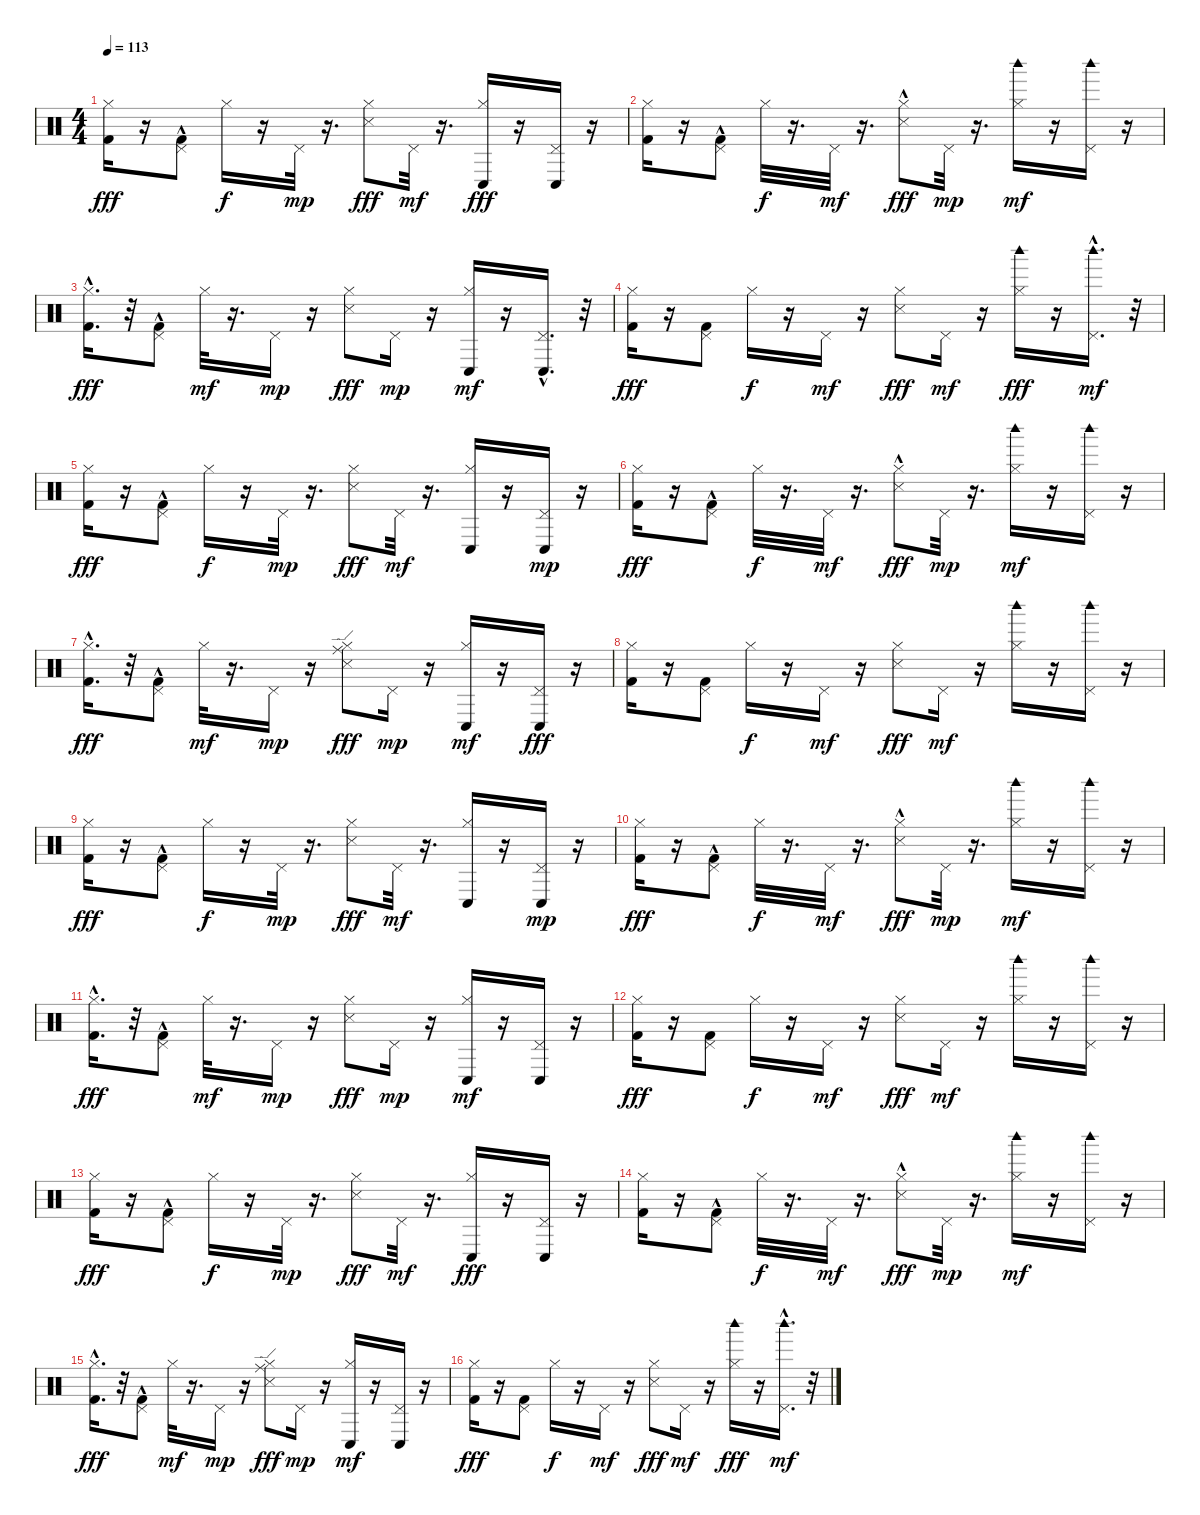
\track "" {instrument percussion}
\staff {score}
\articulation defaults
\ts (4 4)
\tempo 113
\clef neutral
\ks c
("Hi-Hat (closed)" "Kick (hit) 2").16{dy fff} r.16 ("Pedal Hi-Hat (hit)" "Kick (hit) 2"{hac}).8 "Hi-Hat (closed)".16{dy f} r.16 "Pedal Hi-Hat (hit)".32{dy mp} r.16{d} ("Hi-Hat (closed)" "Snare (side stick) 3").8{dy fff} "Pedal Hi-Hat (hit)".32{dy mf} r.16{d} ("Hi-Hat (closed)" "Conga low (hit)").16{dy fff} r.16 ("Pedal Hi-Hat (hit)" "Conga low (hit)").16 r.16 |
("Hi-Hat (closed)" "Kick (hit) 2").16 r.16 ("Pedal Hi-Hat (hit)" "Kick (hit) 2"{hac}).8 "Hi-Hat (closed)".32{dy f} r.16{d} "Pedal Hi-Hat (hit)".32{dy mf} r.16{d} ("Hi-Hat (closed)" "Snare (side stick) 3"{hac}).8{dy fff} "Pedal Hi-Hat (hit)".32{dy mp} r.16{d} ("Woodblock high (hit)" "Hi-Hat (closed)").16{dy mf} r.16 ("Woodblock high (hit)" "Pedal Hi-Hat (hit)").16 r.16 |
("Hi-Hat (closed)" "Kick (hit) 2"{hac}).16{d dy fff} r.32 ("Pedal Hi-Hat (hit)" "Kick (hit) 2"{hac}).8 "Hi-Hat (closed)".32{dy mf} r.16{d} "Pedal Hi-Hat (hit)".16{dy mp} r.16 ("Hi-Hat (closed)" "Snare (side stick) 3").8{dy fff} "Pedal Hi-Hat (hit)".16{dy mp} r.16 ("Conga low (hit)" "Hi-Hat (closed)").16{dy mf} r.16 ("Conga low (hit)"{hac} "Pedal Hi-Hat (hit)").16{d} r.32 |
("Hi-Hat (closed)" "Kick (hit) 2").16{dy fff} r.16 ("Pedal Hi-Hat (hit)" "Kick (hit) 2").8 "Hi-Hat (closed)".16{dy f} r.16 "Pedal Hi-Hat (hit)".16{dy mf} r.16 ("Hi-Hat (closed)" "Snare (side stick) 3").8{dy fff} "Pedal Hi-Hat (hit)".16{dy mf} r.16 ("Hi-Hat (closed)" "Woodblock high (hit)").16{dy fff} r.16 ("Woodblock high (hit)"{hac} "Pedal Hi-Hat (hit)").16{d dy mf} r.32 |
("Hi-Hat (closed)" "Kick (hit) 2").16{dy fff} r.16 ("Pedal Hi-Hat (hit)" "Kick (hit) 2"{hac}).8 "Hi-Hat (closed)".16{dy f} r.16 "Pedal Hi-Hat (hit)".32{dy mp} r.16{d} ("Hi-Hat (closed)" "Snare (side stick) 3").8{dy fff} "Pedal Hi-Hat (hit)".32{dy mf} r.16{d} ("Conga low (hit)" "Hi-Hat (closed)").16 r.16 ("Conga low (hit)" "Pedal Hi-Hat (hit)").16{dy mp} r.16 |
("Hi-Hat (closed)" "Kick (hit) 2").16{dy fff} r.16 ("Pedal Hi-Hat (hit)" "Kick (hit) 2"{hac}).8 "Hi-Hat (closed)".32{dy f} r.16{d} "Pedal Hi-Hat (hit)".32{dy mf} r.16{d} ("Hi-Hat (closed)" "Snare (side stick) 3"{hac}).8{dy fff} "Pedal Hi-Hat (hit)".32{dy mp} r.16{d} ("Woodblock high (hit)" "Hi-Hat (closed)").16{dy mf} r.16 ("Woodblock high (hit)" "Pedal Hi-Hat (hit)").16 r.16 |
("Hi-Hat (closed)" "Kick (hit) 2"{hac}).16{d dy fff} r.32 ("Pedal Hi-Hat (hit)" "Kick (hit) 2"{hac}).8 "Hi-Hat (closed)".32{dy mf} r.16{d} "Pedal Hi-Hat (hit)".16{dy mp} r.16 ("Ride (edge)" "Hi-Hat (closed)" "Snare (side stick) 3").8{dy fff} "Pedal Hi-Hat (hit)".16{dy mp} r.16 ("Conga low (hit)" "Hi-Hat (closed)").16{dy mf} r.16 ("Pedal Hi-Hat (hit)" "Conga low (hit)").16{dy fff} r.16 |
("Hi-Hat (closed)" "Kick (hit) 2").16 r.16 ("Pedal Hi-Hat (hit)" "Kick (hit) 2").8 "Hi-Hat (closed)".16{dy f} r.16 "Pedal Hi-Hat (hit)".16{dy mf} r.16 ("Hi-Hat (closed)" "Snare (side stick) 3").8{dy fff} "Pedal Hi-Hat (hit)".16{dy mf} r.16 ("Woodblock high (hit)" "Hi-Hat (closed)").16 r.16 ("Woodblock high (hit)" "Pedal Hi-Hat (hit)").16 r.16 |
("Hi-Hat (closed)" "Kick (hit) 2").16{dy fff} r.16 ("Pedal Hi-Hat (hit)" "Kick (hit) 2"{hac}).8 "Hi-Hat (closed)".16{dy f} r.16 "Pedal Hi-Hat (hit)".32{dy mp} r.16{d} ("Hi-Hat (closed)" "Snare (side stick) 3").8{dy fff} "Pedal Hi-Hat (hit)".32{dy mf} r.16{d} ("Conga low (hit)" "Hi-Hat (closed)").16 r.16 ("Conga low (hit)" "Pedal Hi-Hat (hit)").16{dy mp} r.16 |
("Hi-Hat (closed)" "Kick (hit) 2").16{dy fff} r.16 ("Pedal Hi-Hat (hit)" "Kick (hit) 2"{hac}).8 "Hi-Hat (closed)".32{dy f} r.16{d} "Pedal Hi-Hat (hit)".32{dy mf} r.16{d} ("Hi-Hat (closed)" "Snare (side stick) 3"{hac}).8{dy fff} "Pedal Hi-Hat (hit)".32{dy mp} r.16{d} ("Woodblock high (hit)" "Hi-Hat (closed)").16{dy mf} r.16 ("Woodblock high (hit)" "Pedal Hi-Hat (hit)").16 r.16 |
("Hi-Hat (closed)" "Kick (hit) 2"{hac}).16{d dy fff} r.32 ("Pedal Hi-Hat (hit)" "Kick (hit) 2"{hac}).8 "Hi-Hat (closed)".32{dy mf} r.16{d} "Pedal Hi-Hat (hit)".16{dy mp} r.16 ("Hi-Hat (closed)" "Snare (side stick) 3").8{dy fff} "Pedal Hi-Hat (hit)".16{dy mp} r.16 ("Conga low (hit)" "Hi-Hat (closed)").16{dy mf} r.16 ("Conga low (hit)" "Pedal Hi-Hat (hit)").16 r.16 |
("Hi-Hat (closed)" "Kick (hit) 2").16{dy fff} r.16 ("Pedal Hi-Hat (hit)" "Kick (hit) 2").8 "Hi-Hat (closed)".16{dy f} r.16 "Pedal Hi-Hat (hit)".16{dy mf} r.16 ("Hi-Hat (closed)" "Snare (side stick) 3").8{dy fff} "Pedal Hi-Hat (hit)".16{dy mf} r.16 ("Woodblock high (hit)" "Hi-Hat (closed)").16 r.16 ("Woodblock high (hit)" "Pedal Hi-Hat (hit)").16 r.16 |
("Hi-Hat (closed)" "Kick (hit) 2").16{dy fff} r.16 ("Pedal Hi-Hat (hit)" "Kick (hit) 2"{hac}).8 "Hi-Hat (closed)".16{dy f} r.16 "Pedal Hi-Hat (hit)".32{dy mp} r.16{d} ("Hi-Hat (closed)" "Snare (side stick) 3").8{dy fff} "Pedal Hi-Hat (hit)".32{dy mf} r.16{d} ("Hi-Hat (closed)" "Conga low (hit)").16{dy fff} r.16 ("Pedal Hi-Hat (hit)" "Conga low (hit)").16 r.16 |
("Hi-Hat (closed)" "Kick (hit) 2").16 r.16 ("Pedal Hi-Hat (hit)" "Kick (hit) 2"{hac}).8 "Hi-Hat (closed)".32{dy f} r.16{d} "Pedal Hi-Hat (hit)".32{dy mf} r.16{d} ("Hi-Hat (closed)" "Snare (side stick) 3"{hac}).8{dy fff} "Pedal Hi-Hat (hit)".32{dy mp} r.16{d} ("Woodblock high (hit)" "Hi-Hat (closed)").16{dy mf} r.16 ("Woodblock high (hit)" "Pedal Hi-Hat (hit)").16 r.16 |
("Hi-Hat (closed)" "Kick (hit) 2"{hac}).16{d dy fff} r.32 ("Pedal Hi-Hat (hit)" "Kick (hit) 2"{hac}).8 "Hi-Hat (closed)".32{dy mf} r.16{d} "Pedal Hi-Hat (hit)".16{dy mp} r.16 ("Ride (edge)" "Hi-Hat (closed)" "Snare (side stick) 3").8{dy fff} "Pedal Hi-Hat (hit)".16{dy mp} r.16 ("Conga low (hit)" "Hi-Hat (closed)").16{dy mf} r.16 ("Conga low (hit)" "Pedal Hi-Hat (hit)").16 r.16 |
("Hi-Hat (closed)" "Kick (hit) 2").16{dy fff} r.16 ("Pedal Hi-Hat (hit)" "Kick (hit) 2").8 "Hi-Hat (closed)".16{dy f} r.16 "Pedal Hi-Hat (hit)".16{dy mf} r.16 ("Hi-Hat (closed)" "Snare (side stick) 3").8{dy fff} "Pedal Hi-Hat (hit)".16{dy mf} r.16 ("Hi-Hat (closed)" "Woodblock high (hit)").16{dy fff} r.16 ("Woodblock high (hit)"{hac} "Pedal Hi-Hat (hit)").16{d dy mf} r.32
